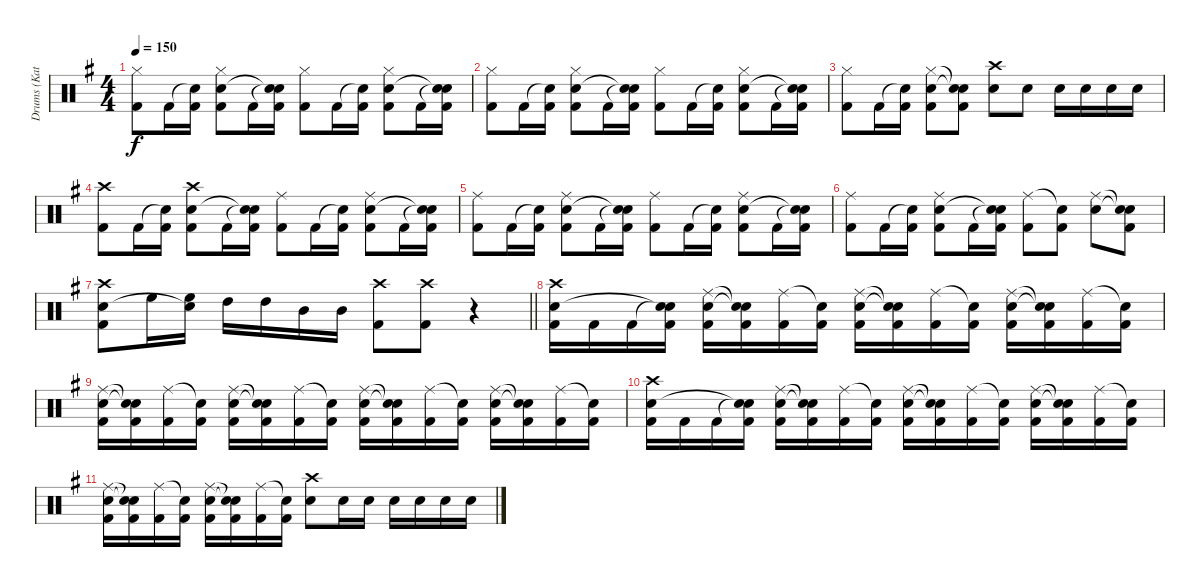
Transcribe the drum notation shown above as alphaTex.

\track ("Drums (Katsuji)" "Drums (Kat") {instrument percussion}
\staff {score}
\articulation defaults
\ts (4 4)
\tempo 150
\clef neutral
\ks g
("Hi-Hat (closed)" "Kick (hit) 2").8{dy f} "Kick (hit) 2".16 ("Snare (hit)"{t} "Kick (hit) 2").16 ("Hi-Hat (closed)" "Snare (hit) 2" "Kick (hit) 2").8 "Kick (hit) 2".16 ("Snare (hit)"{t} "Snare (hit)"{t} "Kick (hit) 2").16 ("Hi-Hat (closed)" "Kick (hit) 2").8 "Kick (hit) 2".16 ("Snare (hit)"{t} "Kick (hit) 2").16 ("Hi-Hat (closed)" "Snare (hit) 2" "Kick (hit) 2").8 "Kick (hit) 2".16 ("Snare (hit)"{t} "Snare (hit)"{t} "Kick (hit) 2").16 |
("Hi-Hat (closed)" "Kick (hit) 2").8 "Kick (hit) 2".16 ("Snare (hit)"{t} "Kick (hit) 2").16 ("Hi-Hat (closed)" "Snare (hit) 2" "Kick (hit) 2").8 "Kick (hit) 2".16 ("Snare (hit)"{t} "Snare (hit)"{t} "Kick (hit) 2").16 ("Hi-Hat (closed)" "Kick (hit) 2").8 "Kick (hit) 2".16 ("Snare (hit)"{t} "Kick (hit) 2").16 ("Hi-Hat (closed)" "Snare (hit) 2" "Kick (hit) 2").8 "Kick (hit) 2".16 ("Snare (hit)"{t} "Snare (hit)"{t} "Kick (hit) 2").16 |
("Hi-Hat (closed)" "Kick (hit) 2").8 "Kick (hit) 2".16 ("Snare (hit)"{t} "Kick (hit) 2").16 ("Hi-Hat (closed)" "Snare (hit) 2" "Kick (hit) 2").8 ("Snare (hit)"{t} "Snare (hit)"{t} "Kick (hit) 2").8 ("Crash high (hit)" "Snare (hit) 2").8 "Snare (hit) 2".8 "Snare (hit) 2".16 "Snare (hit) 2".16 "Snare (hit) 2".16 "Snare (hit) 2".16 |
("Crash high (hit)" "Kick (hit) 2").8 "Kick (hit) 2".16 ("Snare (hit)"{t} "Kick (hit) 2").16 ("Crash high (hit)" "Snare (hit) 2" "Kick (hit) 2").8 "Kick (hit) 2".16 ("Snare (hit)"{t} "Snare (hit)"{t} "Kick (hit) 2").16 ("Ride (middle)" "Kick (hit) 2").8 "Kick (hit) 2".16 ("Snare (hit)"{t} "Kick (hit) 2").16 ("Ride (middle)" "Snare (hit) 2" "Kick (hit) 2").8 "Kick (hit) 2".16 ("Snare (hit)"{t} "Snare (hit)"{t} "Kick (hit) 2").16 |
("Ride (middle)" "Kick (hit) 2").8 "Kick (hit) 2".16 ("Snare (hit)"{t} "Kick (hit) 2").16 ("Ride (middle)" "Snare (hit) 2" "Kick (hit) 2").8 "Kick (hit) 2".16 ("Snare (hit)"{t} "Snare (hit)"{t} "Kick (hit) 2").16 ("Ride (middle)" "Kick (hit) 2").8 "Kick (hit) 2".16 ("Snare (hit)"{t} "Kick (hit) 2").16 ("Ride (middle)" "Snare (hit) 2" "Kick (hit) 2").8 "Kick (hit) 2".16 ("Snare (hit)"{t} "Snare (hit)"{t} "Kick (hit) 2").16 |
("Ride (middle)" "Kick (hit) 2").8 "Kick (hit) 2".16 ("Snare (hit)"{t} "Kick (hit) 2").16 ("Ride (middle)" "Snare (hit) 2" "Kick (hit) 2").8 "Kick (hit) 2".16 ("Snare (hit)"{t} "Snare (hit)"{t} "Kick (hit) 2").16 ("Ride (middle)" "Kick (hit) 2").8 ("Snare (hit)"{t} "Kick (hit) 2").8 ("Ride (middle)" "Snare (hit) 2").8 ("Snare (hit)"{t} "Snare (hit) 2"{t} "Kick (hit) 2").8 |
\barLineRight lightlight
("Crash high (hit)" "Snare (hit) 2" "Kick (hit) 2").8 "High Floor Tom (hit)".16 ("High Floor Tom (hit)" "Snare (hit)"{t}).16 "High Tom (hit)".16 "High Tom (hit)".16 "Mid Tom (hit)".16 "Mid Tom (hit)".16 ("Crash high (hit)" "Kick (hit) 2").8 ("Crash high (hit)" "Kick (hit) 2").8 r.4 |
("Crash high (hit)" "Snare (hit) 2" "Kick (hit) 2").16 "Kick (hit) 2".16 "Kick (hit) 2".16 ("Snare (hit)"{t} "Snare (hit)"{t} "Kick (hit) 2").16 ("Ride (middle)" "Snare (hit) 2" "Kick (hit) 2").16 ("Snare (hit)"{t} "Snare (hit)"{t} "Kick (hit) 2").16 ("Ride (middle)" "Kick (hit) 2").16 ("Snare (hit)"{t} "Kick (hit) 2").16 ("Ride (middle)" "Snare (hit) 2" "Kick (hit) 2").16 ("Snare (hit)"{t} "Snare (hit)"{t} "Kick (hit) 2").16 ("Ride (middle)" "Kick (hit) 2").16 ("Snare (hit)"{t} "Kick (hit) 2").16 ("Ride (middle)" "Snare (hit) 2" "Kick (hit) 2").16 ("Snare (hit)"{t} "Snare (hit)"{t} "Kick (hit) 2").16 ("Ride (middle)" "Kick (hit) 2").16 ("Snare (hit)"{t} "Kick (hit) 2").16 |
("Ride (middle)" "Snare (hit) 2" "Kick (hit) 2").16 ("Snare (hit)"{t} "Snare (hit)"{t} "Kick (hit) 2").16 ("Ride (middle)" "Kick (hit) 2").16 ("Snare (hit)"{t} "Kick (hit) 2").16 ("Ride (middle)" "Snare (hit) 2" "Kick (hit) 2").16 ("Snare (hit)"{t} "Snare (hit)"{t} "Kick (hit) 2").16 ("Ride (middle)" "Kick (hit) 2").16 ("Snare (hit)"{t} "Kick (hit) 2").16 ("Ride (middle)" "Snare (hit) 2" "Kick (hit) 2").16 ("Snare (hit)"{t} "Snare (hit)"{t} "Kick (hit) 2").16 ("Ride (middle)" "Kick (hit) 2").16 ("Snare (hit)"{t} "Kick (hit) 2").16 ("Ride (middle)" "Snare (hit) 2" "Kick (hit) 2").16 ("Snare (hit)"{t} "Snare (hit)"{t} "Kick (hit) 2").16 ("Ride (middle)" "Kick (hit) 2").16 ("Snare (hit)"{t} "Kick (hit) 2").16 |
("Crash high (hit)" "Snare (hit) 2" "Kick (hit) 2").16 "Kick (hit) 2".16 "Kick (hit) 2".16 ("Snare (hit)"{t} "Snare (hit)"{t} "Kick (hit) 2").16 ("Ride (middle)" "Snare (hit) 2" "Kick (hit) 2").16 ("Snare (hit)"{t} "Snare (hit)"{t} "Kick (hit) 2").16 ("Ride (middle)" "Kick (hit) 2").16 ("Snare (hit)"{t} "Kick (hit) 2").16 ("Ride (middle)" "Snare (hit) 2" "Kick (hit) 2").16 ("Snare (hit)"{t} "Snare (hit)"{t} "Kick (hit) 2").16 ("Ride (middle)" "Kick (hit) 2").16 ("Snare (hit)"{t} "Kick (hit) 2").16 ("Ride (middle)" "Snare (hit) 2" "Kick (hit) 2").16 ("Snare (hit)"{t} "Snare (hit)"{t} "Kick (hit) 2").16 ("Ride (middle)" "Kick (hit) 2").16 ("Snare (hit)"{t} "Kick (hit) 2").16 |
("Ride (middle)" "Snare (hit) 2" "Kick (hit) 2").16 ("Snare (hit)"{t} "Snare (hit)"{t} "Kick (hit) 2").16 ("Ride (middle)" "Kick (hit) 2").16 ("Snare (hit)"{t} "Kick (hit) 2").16 ("Ride (middle)" "Snare (hit) 2" "Kick (hit) 2").16 ("Snare (hit)"{t} "Snare (hit)"{t} "Kick (hit) 2").16 ("Ride (middle)" "Kick (hit) 2").16 ("Snare (hit)"{t} "Kick (hit) 2").16 ("Crash high (hit)" "Snare (hit) 2").8 "Snare (hit) 2".16 "Snare (hit) 2".16 "Snare (hit) 2".16 "Snare (hit) 2".16 "Snare (hit) 2".16 "Snare (hit) 2".16
